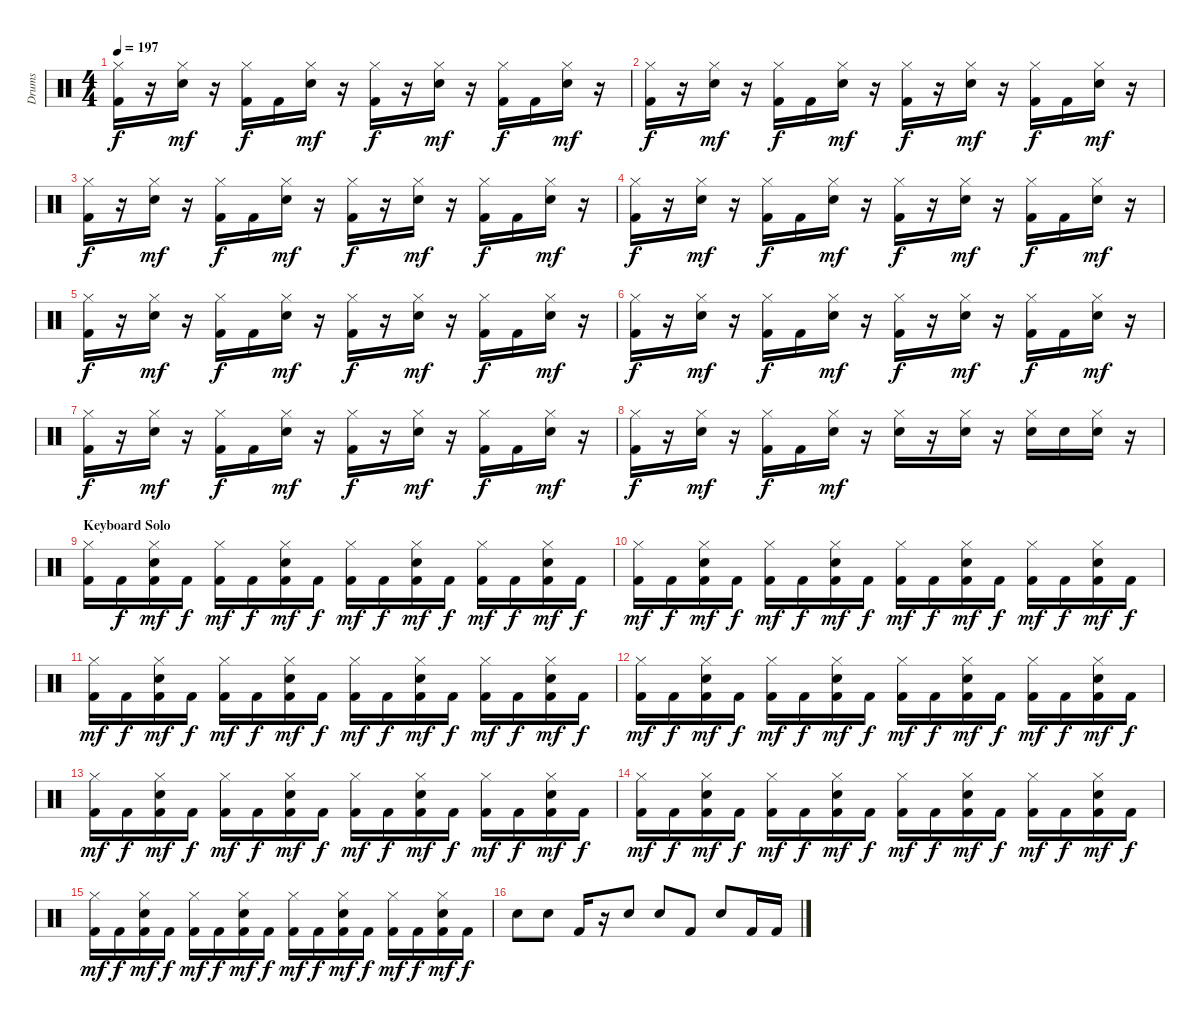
\track ("Drums" "Drums") {instrument percussion}
\staff {score}
\articulation defaults
\ts (4 4)
\tempo 197
\clef neutral
\ks c
("Kick (hit) 2" "Hi-Hat (closed)").16{dy f} r.16 ("Snare (hit) 2" "Hi-Hat (closed)").16{dy mf} r.16 ("Kick (hit) 2" "Hi-Hat (closed)").16{dy f} "Kick (hit) 2".16 ("Snare (hit) 2" "Hi-Hat (closed)").16{dy mf} r.16 ("Kick (hit) 2" "Hi-Hat (closed)").16{dy f} r.16 ("Snare (hit) 2" "Hi-Hat (closed)").16{dy mf} r.16 ("Kick (hit) 2" "Hi-Hat (closed)").16{dy f} "Kick (hit) 2".16 ("Snare (hit) 2" "Hi-Hat (closed)").16{dy mf} r.16 |
("Kick (hit) 2" "Hi-Hat (closed)").16{dy f} r.16 ("Snare (hit) 2" "Hi-Hat (closed)").16{dy mf} r.16 ("Kick (hit) 2" "Hi-Hat (closed)").16{dy f} "Kick (hit) 2".16 ("Snare (hit) 2" "Hi-Hat (closed)").16{dy mf} r.16 ("Kick (hit) 2" "Hi-Hat (closed)").16{dy f} r.16 ("Snare (hit) 2" "Hi-Hat (closed)").16{dy mf} r.16 ("Kick (hit) 2" "Hi-Hat (closed)").16{dy f} "Kick (hit) 2".16 ("Snare (hit) 2" "Hi-Hat (closed)").16{dy mf} r.16 |
("Kick (hit) 2" "Hi-Hat (closed)").16{dy f} r.16 ("Snare (hit) 2" "Hi-Hat (closed)").16{dy mf} r.16 ("Kick (hit) 2" "Hi-Hat (closed)").16{dy f} "Kick (hit) 2".16 ("Snare (hit) 2" "Hi-Hat (closed)").16{dy mf} r.16 ("Kick (hit) 2" "Hi-Hat (closed)").16{dy f} r.16 ("Snare (hit) 2" "Hi-Hat (closed)").16{dy mf} r.16 ("Kick (hit) 2" "Hi-Hat (closed)").16{dy f} "Kick (hit) 2".16 ("Snare (hit) 2" "Hi-Hat (closed)").16{dy mf} r.16 |
("Kick (hit) 2" "Hi-Hat (closed)").16{dy f} r.16 ("Snare (hit) 2" "Hi-Hat (closed)").16{dy mf} r.16 ("Kick (hit) 2" "Hi-Hat (closed)").16{dy f} "Kick (hit) 2".16 ("Snare (hit) 2" "Hi-Hat (closed)").16{dy mf} r.16 ("Kick (hit) 2" "Hi-Hat (closed)").16{dy f} r.16 ("Snare (hit) 2" "Hi-Hat (closed)").16{dy mf} r.16 ("Kick (hit) 2" "Hi-Hat (closed)").16{dy f} "Kick (hit) 2".16 ("Snare (hit) 2" "Hi-Hat (closed)").16{dy mf} r.16 |
("Kick (hit) 2" "Hi-Hat (closed)").16{dy f} r.16 ("Snare (hit) 2" "Hi-Hat (closed)").16{dy mf} r.16 ("Kick (hit) 2" "Hi-Hat (closed)").16{dy f} "Kick (hit) 2".16 ("Snare (hit) 2" "Hi-Hat (closed)").16{dy mf} r.16 ("Kick (hit) 2" "Hi-Hat (closed)").16{dy f} r.16 ("Snare (hit) 2" "Hi-Hat (closed)").16{dy mf} r.16 ("Kick (hit) 2" "Hi-Hat (closed)").16{dy f} "Kick (hit) 2".16 ("Snare (hit) 2" "Hi-Hat (closed)").16{dy mf} r.16 |
("Kick (hit) 2" "Hi-Hat (closed)").16{dy f} r.16 ("Snare (hit) 2" "Hi-Hat (closed)").16{dy mf} r.16 ("Kick (hit) 2" "Hi-Hat (closed)").16{dy f} "Kick (hit) 2".16 ("Snare (hit) 2" "Hi-Hat (closed)").16{dy mf} r.16 ("Kick (hit) 2" "Hi-Hat (closed)").16{dy f} r.16 ("Snare (hit) 2" "Hi-Hat (closed)").16{dy mf} r.16 ("Kick (hit) 2" "Hi-Hat (closed)").16{dy f} "Kick (hit) 2".16 ("Snare (hit) 2" "Hi-Hat (closed)").16{dy mf} r.16 |
("Kick (hit) 2" "Hi-Hat (closed)").16{dy f} r.16 ("Snare (hit) 2" "Hi-Hat (closed)").16{dy mf} r.16 ("Kick (hit) 2" "Hi-Hat (closed)").16{dy f} "Kick (hit) 2".16 ("Snare (hit) 2" "Hi-Hat (closed)").16{dy mf} r.16 ("Kick (hit) 2" "Hi-Hat (closed)").16{dy f} r.16 ("Snare (hit) 2" "Hi-Hat (closed)").16{dy mf} r.16 ("Kick (hit) 2" "Hi-Hat (closed)").16{dy f} "Kick (hit) 2".16 ("Snare (hit) 2" "Hi-Hat (closed)").16{dy mf} r.16 |
("Kick (hit) 2" "Hi-Hat (closed)").16{dy f} r.16 ("Snare (hit) 2" "Hi-Hat (closed)").16{dy mf} r.16 ("Kick (hit) 2" "Hi-Hat (closed)").16{dy f} "Kick (hit) 2".16 ("Snare (hit) 2" "Hi-Hat (closed)").16{dy mf} r.16 ("Snare (hit) 2" "Hi-Hat (closed)").16 r.16 ("Snare (hit) 2" "Hi-Hat (closed)").16 r.16 ("Snare (hit) 2" "Hi-Hat (closed)").16 "Snare (hit) 2".16 ("Snare (hit) 2" "Hi-Hat (closed)").16 r.16 |
\section ("" "Keyboard Solo")
("Kick (hit) 2" "Hi-Hat (closed)").16 "Kick (hit) 2".16{dy f} ("Kick (hit) 2" "Snare (hit) 2" "Hi-Hat (closed)").16{dy mf} "Kick (hit) 2".16{dy f} ("Kick (hit) 2" "Hi-Hat (closed)").16{dy mf} "Kick (hit) 2".16{dy f} ("Kick (hit) 2" "Snare (hit) 2" "Hi-Hat (closed)").16{dy mf} "Kick (hit) 2".16{dy f} ("Kick (hit) 2" "Hi-Hat (closed)").16{dy mf} "Kick (hit) 2".16{dy f} ("Kick (hit) 2" "Snare (hit) 2" "Hi-Hat (closed)").16{dy mf} "Kick (hit) 2".16{dy f} ("Kick (hit) 2" "Hi-Hat (closed)").16{dy mf} "Kick (hit) 2".16{dy f} ("Kick (hit) 2" "Snare (hit) 2" "Hi-Hat (closed)").16{dy mf} "Kick (hit) 2".16{dy f} |
("Kick (hit) 2" "Hi-Hat (closed)").16{dy mf} "Kick (hit) 2".16{dy f} ("Kick (hit) 2" "Snare (hit) 2" "Hi-Hat (closed)").16{dy mf} "Kick (hit) 2".16{dy f} ("Kick (hit) 2" "Hi-Hat (closed)").16{dy mf} "Kick (hit) 2".16{dy f} ("Kick (hit) 2" "Snare (hit) 2" "Hi-Hat (closed)").16{dy mf} "Kick (hit) 2".16{dy f} ("Kick (hit) 2" "Hi-Hat (closed)").16{dy mf} "Kick (hit) 2".16{dy f} ("Kick (hit) 2" "Snare (hit) 2" "Hi-Hat (closed)").16{dy mf} "Kick (hit) 2".16{dy f} ("Kick (hit) 2" "Hi-Hat (closed)").16{dy mf} "Kick (hit) 2".16{dy f} ("Kick (hit) 2" "Snare (hit) 2" "Hi-Hat (closed)").16{dy mf} "Kick (hit) 2".16{dy f} |
("Kick (hit) 2" "Hi-Hat (closed)").16{dy mf} "Kick (hit) 2".16{dy f} ("Kick (hit) 2" "Snare (hit) 2" "Hi-Hat (closed)").16{dy mf} "Kick (hit) 2".16{dy f} ("Kick (hit) 2" "Hi-Hat (closed)").16{dy mf} "Kick (hit) 2".16{dy f} ("Kick (hit) 2" "Snare (hit) 2" "Hi-Hat (closed)").16{dy mf} "Kick (hit) 2".16{dy f} ("Kick (hit) 2" "Hi-Hat (closed)").16{dy mf} "Kick (hit) 2".16{dy f} ("Kick (hit) 2" "Snare (hit) 2" "Hi-Hat (closed)").16{dy mf} "Kick (hit) 2".16{dy f} ("Kick (hit) 2" "Hi-Hat (closed)").16{dy mf} "Kick (hit) 2".16{dy f} ("Kick (hit) 2" "Snare (hit) 2" "Hi-Hat (closed)").16{dy mf} "Kick (hit) 2".16{dy f} |
("Kick (hit) 2" "Hi-Hat (closed)").16{dy mf} "Kick (hit) 2".16{dy f} ("Kick (hit) 2" "Snare (hit) 2" "Hi-Hat (closed)").16{dy mf} "Kick (hit) 2".16{dy f} ("Kick (hit) 2" "Hi-Hat (closed)").16{dy mf} "Kick (hit) 2".16{dy f} ("Kick (hit) 2" "Snare (hit) 2" "Hi-Hat (closed)").16{dy mf} "Kick (hit) 2".16{dy f} ("Kick (hit) 2" "Hi-Hat (closed)").16{dy mf} "Kick (hit) 2".16{dy f} ("Kick (hit) 2" "Snare (hit) 2" "Hi-Hat (closed)").16{dy mf} "Kick (hit) 2".16{dy f} ("Kick (hit) 2" "Hi-Hat (closed)").16{dy mf} "Kick (hit) 2".16{dy f} ("Kick (hit) 2" "Snare (hit) 2" "Hi-Hat (closed)").16{dy mf} "Kick (hit) 2".16{dy f} |
("Kick (hit) 2" "Hi-Hat (closed)").16{dy mf} "Kick (hit) 2".16{dy f} ("Kick (hit) 2" "Snare (hit) 2" "Hi-Hat (closed)").16{dy mf} "Kick (hit) 2".16{dy f} ("Kick (hit) 2" "Hi-Hat (closed)").16{dy mf} "Kick (hit) 2".16{dy f} ("Kick (hit) 2" "Snare (hit) 2" "Hi-Hat (closed)").16{dy mf} "Kick (hit) 2".16{dy f} ("Kick (hit) 2" "Hi-Hat (closed)").16{dy mf} "Kick (hit) 2".16{dy f} ("Kick (hit) 2" "Snare (hit) 2" "Hi-Hat (closed)").16{dy mf} "Kick (hit) 2".16{dy f} ("Kick (hit) 2" "Hi-Hat (closed)").16{dy mf} "Kick (hit) 2".16{dy f} ("Kick (hit) 2" "Snare (hit) 2" "Hi-Hat (closed)").16{dy mf} "Kick (hit) 2".16{dy f} |
("Kick (hit) 2" "Hi-Hat (closed)").16{dy mf} "Kick (hit) 2".16{dy f} ("Kick (hit) 2" "Snare (hit) 2" "Hi-Hat (closed)").16{dy mf} "Kick (hit) 2".16{dy f} ("Kick (hit) 2" "Hi-Hat (closed)").16{dy mf} "Kick (hit) 2".16{dy f} ("Kick (hit) 2" "Snare (hit) 2" "Hi-Hat (closed)").16{dy mf} "Kick (hit) 2".16{dy f} ("Kick (hit) 2" "Hi-Hat (closed)").16{dy mf} "Kick (hit) 2".16{dy f} ("Kick (hit) 2" "Snare (hit) 2" "Hi-Hat (closed)").16{dy mf} "Kick (hit) 2".16{dy f} ("Kick (hit) 2" "Hi-Hat (closed)").16{dy mf} "Kick (hit) 2".16{dy f} ("Kick (hit) 2" "Snare (hit) 2" "Hi-Hat (closed)").16{dy mf} "Kick (hit) 2".16{dy f} |
("Kick (hit) 2" "Hi-Hat (closed)").16{dy mf} "Kick (hit) 2".16{dy f} ("Kick (hit) 2" "Snare (hit) 2" "Hi-Hat (closed)").16{dy mf} "Kick (hit) 2".16{dy f} ("Kick (hit) 2" "Hi-Hat (closed)").16{dy mf} "Kick (hit) 2".16{dy f} ("Kick (hit) 2" "Snare (hit) 2" "Hi-Hat (closed)").16{dy mf} "Kick (hit) 2".16{dy f} ("Kick (hit) 2" "Hi-Hat (closed)").16{dy mf} "Kick (hit) 2".16{dy f} ("Kick (hit) 2" "Snare (hit) 2" "Hi-Hat (closed)").16{dy mf} "Kick (hit) 2".16{dy f} ("Kick (hit) 2" "Hi-Hat (closed)").16{dy mf} "Kick (hit) 2".16{dy f} ("Kick (hit) 2" "Snare (hit) 2" "Hi-Hat (closed)").16{dy mf} "Kick (hit) 2".16{dy f} |
"Snare (hit) 2".8 "Snare (hit) 2".8 "Kick (hit) 2".16 r.16 "Snare (hit) 2".8 "Snare (hit) 2".8 "Kick (hit) 2".8 "Snare (hit) 2".8 "Kick (hit) 2".16 "Kick (hit) 2".16
